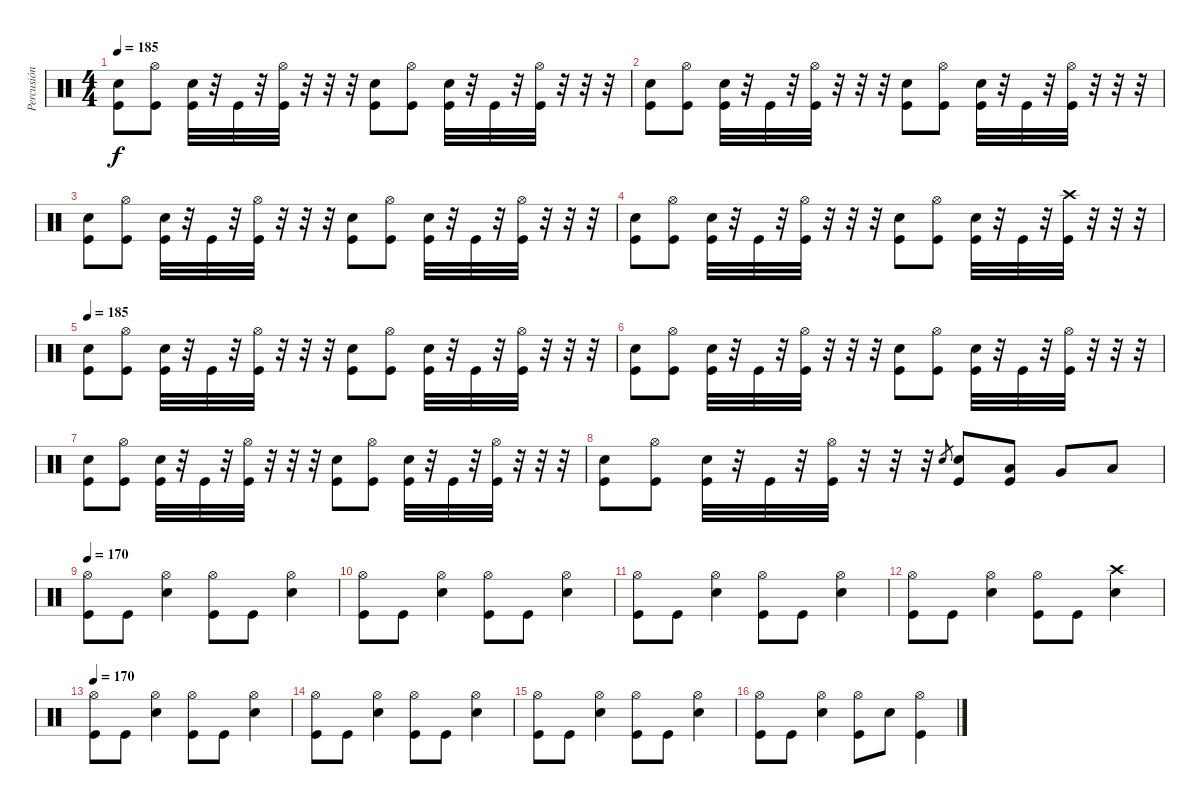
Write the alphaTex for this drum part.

\track ("Percusión" "Percusión") {instrument percussion}
\staff {score}
\articulation defaults
\ts (4 4)
\tempo 185
\clef neutral
\ks c
("Electric Snare (hit)" "Kick (hit)").8{dy f} ("Hi-Hat (open)" "Kick (hit)").8 ("Electric Snare (hit)" "Kick (hit)").32 r.32 "Kick (hit)".32 r.32 ("Hi-Hat (open)" "Kick (hit)").32 r.32 r.32 r.32 ("Electric Snare (hit)" "Kick (hit)").8 ("Hi-Hat (open)" "Kick (hit)").8 ("Electric Snare (hit)" "Kick (hit)").32 r.32 "Kick (hit)".32 r.32 ("Hi-Hat (open)" "Kick (hit)").32 r.32 r.32 r.32 |
("Electric Snare (hit)" "Kick (hit)").8 ("Hi-Hat (open)" "Kick (hit)").8 ("Electric Snare (hit)" "Kick (hit)").32 r.32 "Kick (hit)".32 r.32 ("Hi-Hat (open)" "Kick (hit)").32 r.32 r.32 r.32 ("Electric Snare (hit)" "Kick (hit)").8 ("Hi-Hat (open)" "Kick (hit)").8 ("Electric Snare (hit)" "Kick (hit)").32 r.32 "Kick (hit)".32 r.32 ("Hi-Hat (open)" "Kick (hit)").32 r.32 r.32 r.32 |
("Electric Snare (hit)" "Kick (hit)").8 ("Hi-Hat (open)" "Kick (hit)").8 ("Electric Snare (hit)" "Kick (hit)").32 r.32 "Kick (hit)".32 r.32 ("Hi-Hat (open)" "Kick (hit)").32 r.32 r.32 r.32 ("Electric Snare (hit)" "Kick (hit)").8 ("Hi-Hat (open)" "Kick (hit)").8 ("Electric Snare (hit)" "Kick (hit)").32 r.32 "Kick (hit)".32 r.32 ("Hi-Hat (open)" "Kick (hit)").32 r.32 r.32 r.32 |
("Electric Snare (hit)" "Kick (hit)").8 ("Hi-Hat (open)" "Kick (hit)").8 ("Electric Snare (hit)" "Kick (hit)").32 r.32 "Kick (hit)".32 r.32 ("Hi-Hat (open)" "Kick (hit)").32 r.32 r.32 r.32 ("Electric Snare (hit)" "Kick (hit)").8 ("Hi-Hat (open)" "Kick (hit)").8 ("Electric Snare (hit)" "Kick (hit)").32 r.32 "Kick (hit)".32 r.32 ("Crash high (hit)" "Kick (hit)").32 r.32 r.32 r.32 |
\tempo 185
("Electric Snare (hit)" "Kick (hit)").8 ("Hi-Hat (open)" "Kick (hit)").8 ("Electric Snare (hit)" "Kick (hit)").32 r.32 "Kick (hit)".32 r.32 ("Hi-Hat (open)" "Kick (hit)").32 r.32 r.32 r.32 ("Electric Snare (hit)" "Kick (hit)").8 ("Hi-Hat (open)" "Kick (hit)").8 ("Electric Snare (hit)" "Kick (hit)").32 r.32 "Kick (hit)".32 r.32 ("Hi-Hat (open)" "Kick (hit)").32 r.32 r.32 r.32 |
("Electric Snare (hit)" "Kick (hit)").8 ("Hi-Hat (open)" "Kick (hit)").8 ("Electric Snare (hit)" "Kick (hit)").32 r.32 "Kick (hit)".32 r.32 ("Hi-Hat (open)" "Kick (hit)").32 r.32 r.32 r.32 ("Electric Snare (hit)" "Kick (hit)").8 ("Hi-Hat (open)" "Kick (hit)").8 ("Electric Snare (hit)" "Kick (hit)").32 r.32 "Kick (hit)".32 r.32 ("Hi-Hat (open)" "Kick (hit)").32 r.32 r.32 r.32 |
("Electric Snare (hit)" "Kick (hit)").8 ("Hi-Hat (open)" "Kick (hit)").8 ("Electric Snare (hit)" "Kick (hit)").32 r.32 "Kick (hit)".32 r.32 ("Hi-Hat (open)" "Kick (hit)").32 r.32 r.32 r.32 ("Electric Snare (hit)" "Kick (hit)").8 ("Hi-Hat (open)" "Kick (hit)").8 ("Electric Snare (hit)" "Kick (hit)").32 r.32 "Kick (hit)".32 r.32 ("Hi-Hat (open)" "Kick (hit)").32 r.32 r.32 r.32 |
("Electric Snare (hit)" "Kick (hit)").8 ("Hi-Hat (open)" "Kick (hit)").8 ("Electric Snare (hit)" "Kick (hit)").32 r.32 "Kick (hit)".32 r.32 ("Hi-Hat (open)" "Kick (hit)").32 r.32 r.32 r.32 "Electric Snare (hit)".8{gr} ("Electric Snare (hit)" "Kick (hit)").8 ("Low Tom (hit)" "Kick (hit)").8 "Very Low Tom (hit)".8 "Low Floor Tom (hit)".8 |
\tempo 185
\tempo 170
("Hi-Hat (open)" "Kick (hit)").8 "Kick (hit)".8 ("Hi-Hat (open)" "Electric Snare (hit)").4 ("Hi-Hat (open)" "Kick (hit)").8 "Kick (hit)".8 ("Hi-Hat (open)" "Electric Snare (hit)").4 |
("Hi-Hat (open)" "Kick (hit)").8 "Kick (hit)".8 ("Hi-Hat (open)" "Electric Snare (hit)").4 ("Hi-Hat (open)" "Kick (hit)").8 "Kick (hit)".8 ("Hi-Hat (open)" "Electric Snare (hit)").4 |
("Hi-Hat (open)" "Kick (hit)").8 "Kick (hit)".8 ("Hi-Hat (open)" "Electric Snare (hit)").4 ("Hi-Hat (open)" "Kick (hit)").8 "Kick (hit)".8 ("Hi-Hat (open)" "Electric Snare (hit)").4 |
("Hi-Hat (open)" "Kick (hit)").8 "Kick (hit)".8 ("Hi-Hat (open)" "Electric Snare (hit)").4 ("Hi-Hat (open)" "Kick (hit)").8 "Kick (hit)".8 ("Crash high (hit)" "Electric Snare (hit)").4 |
\tempo 185
\tempo 170
("Hi-Hat (open)" "Kick (hit)").8 "Kick (hit)".8 ("Hi-Hat (open)" "Electric Snare (hit)").4 ("Hi-Hat (open)" "Kick (hit)").8 "Kick (hit)".8 ("Hi-Hat (open)" "Electric Snare (hit)").4 |
("Hi-Hat (open)" "Kick (hit)").8 "Kick (hit)".8 ("Hi-Hat (open)" "Electric Snare (hit)").4 ("Hi-Hat (open)" "Kick (hit)").8 "Kick (hit)".8 ("Hi-Hat (open)" "Electric Snare (hit)").4 |
("Hi-Hat (open)" "Kick (hit)").8 "Kick (hit)".8 ("Hi-Hat (open)" "Electric Snare (hit)").4 ("Hi-Hat (open)" "Kick (hit)").8 "Kick (hit)".8 ("Hi-Hat (open)" "Electric Snare (hit)").4 |
("Hi-Hat (open)" "Kick (hit)").8 "Kick (hit)".8 ("Hi-Hat (open)" "Electric Snare (hit)").4 ("Hi-Hat (open)" "Kick (hit)").8 "Electric Snare (hit)".8 ("Hi-Hat (open)" "Kick (hit)").4
